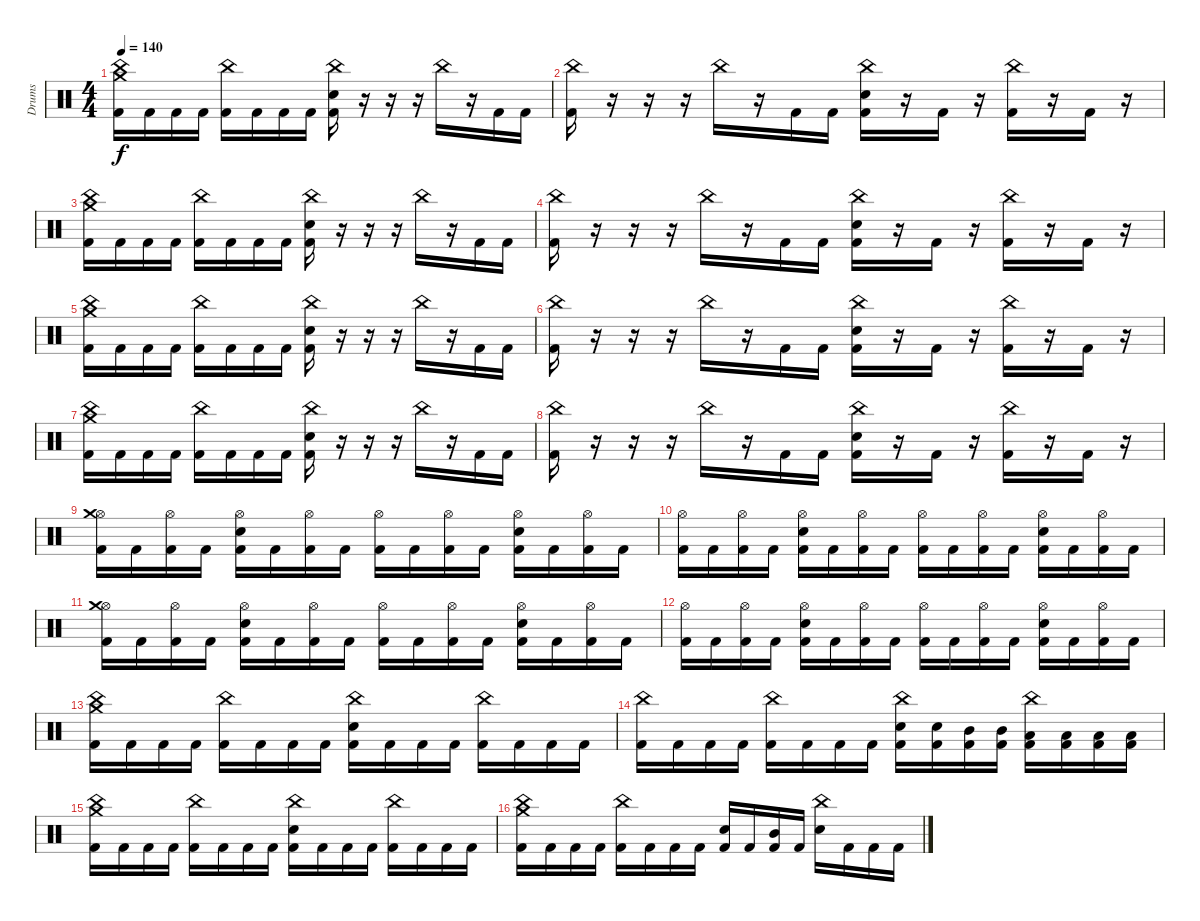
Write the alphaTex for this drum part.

\track ("Drums" "Drums") {instrument percussion}
\staff {score}
\articulation defaults
\ts (4 4)
\tempo 140
\clef neutral
\ks c
("China (hit)" "Crash medium (hit)" "Kick (hit) 2").16{dy f} "Kick (hit) 2".16 "Kick (hit) 2".16 "Kick (hit) 2".16 ("China (hit)" "Kick (hit) 2").16 "Kick (hit) 2".16 "Kick (hit) 2".16 "Kick (hit) 2".16 ("China (hit)" "Electric Snare (hit)" "Kick (hit) 2").16 r.16 r.16 r.16 "China (hit)".16 r.16 "Kick (hit) 2".16 "Kick (hit) 2".16 |
("China (hit)" "Kick (hit) 2").16 r.16 r.16 r.16 "China (hit)".16 r.16 "Kick (hit) 2".16 "Kick (hit) 2".16 ("China (hit)" "Electric Snare (hit)" "Kick (hit) 2").16 r.16 "Kick (hit) 2".16 r.16 ("China (hit)" "Kick (hit) 2").16 r.16 "Kick (hit) 2".16 r.16 |
("China (hit)" "Crash medium (hit)" "Kick (hit) 2").16 "Kick (hit) 2".16 "Kick (hit) 2".16 "Kick (hit) 2".16 ("China (hit)" "Kick (hit) 2").16 "Kick (hit) 2".16 "Kick (hit) 2".16 "Kick (hit) 2".16 ("China (hit)" "Electric Snare (hit)" "Kick (hit) 2").16 r.16 r.16 r.16 "China (hit)".16 r.16 "Kick (hit) 2".16 "Kick (hit) 2".16 |
("China (hit)" "Kick (hit) 2").16 r.16 r.16 r.16 "China (hit)".16 r.16 "Kick (hit) 2".16 "Kick (hit) 2".16 ("China (hit)" "Electric Snare (hit)" "Kick (hit) 2").16 r.16 "Kick (hit) 2".16 r.16 ("China (hit)" "Kick (hit) 2").16 r.16 "Kick (hit) 2".16 r.16 |
("China (hit)" "Crash medium (hit)" "Kick (hit) 2").16 "Kick (hit) 2".16 "Kick (hit) 2".16 "Kick (hit) 2".16 ("China (hit)" "Kick (hit) 2").16 "Kick (hit) 2".16 "Kick (hit) 2".16 "Kick (hit) 2".16 ("China (hit)" "Electric Snare (hit)" "Kick (hit) 2").16 r.16 r.16 r.16 "China (hit)".16 r.16 "Kick (hit) 2".16 "Kick (hit) 2".16 |
("China (hit)" "Kick (hit) 2").16 r.16 r.16 r.16 "China (hit)".16 r.16 "Kick (hit) 2".16 "Kick (hit) 2".16 ("China (hit)" "Electric Snare (hit)" "Kick (hit) 2").16 r.16 "Kick (hit) 2".16 r.16 ("China (hit)" "Kick (hit) 2").16 r.16 "Kick (hit) 2".16 r.16 |
("China (hit)" "Crash medium (hit)" "Kick (hit) 2").16 "Kick (hit) 2".16 "Kick (hit) 2".16 "Kick (hit) 2".16 ("China (hit)" "Kick (hit) 2").16 "Kick (hit) 2".16 "Kick (hit) 2".16 "Kick (hit) 2".16 ("China (hit)" "Electric Snare (hit)" "Kick (hit) 2").16 r.16 r.16 r.16 "China (hit)".16 r.16 "Kick (hit) 2".16 "Kick (hit) 2".16 |
("China (hit)" "Kick (hit) 2").16 r.16 r.16 r.16 "China (hit)".16 r.16 "Kick (hit) 2".16 "Kick (hit) 2".16 ("China (hit)" "Electric Snare (hit)" "Kick (hit) 2").16 r.16 "Kick (hit) 2".16 r.16 ("China (hit)" "Kick (hit) 2").16 r.16 "Kick (hit) 2".16 r.16 |
("Hi-Hat (open)" "Crash medium (hit)" "Kick (hit) 2").16 "Kick (hit) 2".16 ("Hi-Hat (open)" "Kick (hit) 2").16 "Kick (hit) 2".16 ("Hi-Hat (open)" "Electric Snare (hit)" "Kick (hit) 2").16 "Kick (hit) 2".16 ("Hi-Hat (open)" "Kick (hit) 2").16 "Kick (hit) 2".16 ("Hi-Hat (open)" "Kick (hit) 2").16 "Kick (hit) 2".16 ("Hi-Hat (open)" "Kick (hit) 2").16 "Kick (hit) 2".16 ("Hi-Hat (open)" "Electric Snare (hit)" "Kick (hit) 2").16 "Kick (hit) 2".16 ("Hi-Hat (open)" "Kick (hit) 2").16 "Kick (hit) 2".16 |
("Hi-Hat (open)" "Kick (hit) 2").16 "Kick (hit) 2".16 ("Hi-Hat (open)" "Kick (hit) 2").16 "Kick (hit) 2".16 ("Hi-Hat (open)" "Electric Snare (hit)" "Kick (hit) 2").16 "Kick (hit) 2".16 ("Hi-Hat (open)" "Kick (hit) 2").16 "Kick (hit) 2".16 ("Hi-Hat (open)" "Kick (hit) 2").16 "Kick (hit) 2".16 ("Hi-Hat (open)" "Kick (hit) 2").16 "Kick (hit) 2".16 ("Hi-Hat (open)" "Electric Snare (hit)" "Kick (hit) 2").16 "Kick (hit) 2".16 ("Hi-Hat (open)" "Kick (hit) 2").16 "Kick (hit) 2".16 |
("Hi-Hat (open)" "Crash medium (hit)" "Kick (hit) 2").16 "Kick (hit) 2".16 ("Hi-Hat (open)" "Kick (hit) 2").16 "Kick (hit) 2".16 ("Hi-Hat (open)" "Electric Snare (hit)" "Kick (hit) 2").16 "Kick (hit) 2".16 ("Hi-Hat (open)" "Kick (hit) 2").16 "Kick (hit) 2".16 ("Hi-Hat (open)" "Kick (hit) 2").16 "Kick (hit) 2".16 ("Hi-Hat (open)" "Kick (hit) 2").16 "Kick (hit) 2".16 ("Hi-Hat (open)" "Electric Snare (hit)" "Kick (hit) 2").16 "Kick (hit) 2".16 ("Hi-Hat (open)" "Kick (hit) 2").16 "Kick (hit) 2".16 |
("Hi-Hat (open)" "Kick (hit) 2").16 "Kick (hit) 2".16 ("Hi-Hat (open)" "Kick (hit) 2").16 "Kick (hit) 2".16 ("Hi-Hat (open)" "Electric Snare (hit)" "Kick (hit) 2").16 "Kick (hit) 2".16 ("Hi-Hat (open)" "Kick (hit) 2").16 "Kick (hit) 2".16 ("Hi-Hat (open)" "Kick (hit) 2").16 "Kick (hit) 2".16 ("Hi-Hat (open)" "Kick (hit) 2").16 "Kick (hit) 2".16 ("Hi-Hat (open)" "Electric Snare (hit)" "Kick (hit) 2").16 "Kick (hit) 2".16 ("Hi-Hat (open)" "Kick (hit) 2").16 "Kick (hit) 2".16 |
("China (hit)" "Crash medium (hit)" "Kick (hit) 2").16 "Kick (hit) 2".16 "Kick (hit) 2".16 "Kick (hit) 2".16 ("China (hit)" "Kick (hit) 2").16 "Kick (hit) 2".16 "Kick (hit) 2".16 "Kick (hit) 2".16 ("China (hit)" "Electric Snare (hit)" "Kick (hit) 2").16 "Kick (hit) 2".16 "Kick (hit) 2".16 "Kick (hit) 2".16 ("China (hit)" "Kick (hit) 2").16 "Kick (hit) 2".16 "Kick (hit) 2".16 "Kick (hit) 2".16 |
("China (hit)" "Kick (hit) 2").16 "Kick (hit) 2".16 "Kick (hit) 2".16 "Kick (hit) 2".16 ("China (hit)" "Kick (hit) 2").16 "Kick (hit) 2".16 "Kick (hit) 2".16 "Kick (hit) 2".16 ("China (hit)" "Electric Snare (hit)" "Kick (hit) 2").16 ("Electric Snare (hit)" "Kick (hit) 2").16 ("Mid Tom (hit)" "Kick (hit) 2").16 ("Mid Tom (hit)" "Kick (hit) 2").16 ("China (hit)" "Low Tom (hit)" "Kick (hit) 2").16 ("Low Tom (hit)" "Kick (hit) 2").16 ("Low Tom (hit)" "Kick (hit) 2").16 ("Low Tom (hit)" "Kick (hit) 2").16 |
("China (hit)" "Crash medium (hit)" "Kick (hit) 2").16 "Kick (hit) 2".16 "Kick (hit) 2".16 "Kick (hit) 2".16 ("China (hit)" "Kick (hit) 2").16 "Kick (hit) 2".16 "Kick (hit) 2".16 "Kick (hit) 2".16 ("China (hit)" "Electric Snare (hit)" "Kick (hit) 2").16 "Kick (hit) 2".16 "Kick (hit) 2".16 "Kick (hit) 2".16 ("China (hit)" "Kick (hit) 2").16 "Kick (hit) 2".16 "Kick (hit) 2".16 "Kick (hit) 2".16 |
("China (hit)" "Crash medium (hit)" "Kick (hit) 2").16 "Kick (hit) 2".16 "Kick (hit) 2".16 "Kick (hit) 2".16 ("China (hit)" "Kick (hit) 2").16 "Kick (hit) 2".16 "Kick (hit) 2".16 "Kick (hit) 2".16 ("Electric Snare (hit)" "Kick (hit) 2").16 "Kick (hit) 2".16 ("Mid Tom (hit)" "Kick (hit) 2").16 "Kick (hit) 2".16 ("China (hit)" "Electric Snare (hit)").16 "Kick (hit) 2".16 "Kick (hit) 2".16 "Kick (hit) 2".16
